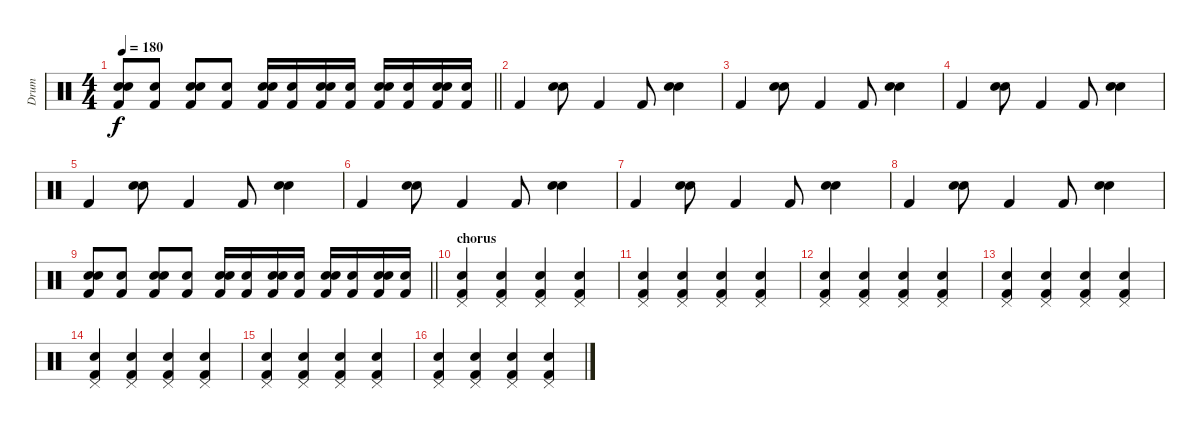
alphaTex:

\track ("Drum" "Drum") {instrument percussion}
\staff {score}
\articulation defaults
\ts (4 4)
\tempo 180
\clef neutral
\barLineRight lightlight
\ks c
("Kick (hit) 2" "Electric Snare (hit)" "Snare (hit) 2").8{dy f} ("Kick (hit) 2" "Electric Snare (hit)").8 ("Kick (hit) 2" "Electric Snare (hit)" "Snare (hit) 2").8 ("Kick (hit) 2" "Electric Snare (hit)").8 ("Kick (hit) 2" "Electric Snare (hit)" "Snare (hit) 2").16 ("Kick (hit) 2" "Electric Snare (hit)").16 ("Kick (hit) 2" "Electric Snare (hit)" "Snare (hit) 2").16 ("Kick (hit) 2" "Electric Snare (hit)").16 ("Kick (hit) 2" "Electric Snare (hit)" "Snare (hit) 2").16 ("Kick (hit) 2" "Electric Snare (hit)").16 ("Kick (hit) 2" "Electric Snare (hit)" "Snare (hit) 2").16 ("Kick (hit) 2" "Electric Snare (hit)").16 |
"Kick (hit) 2".4 ("Snare (hit) 2" "Electric Snare (hit)").8 "Kick (hit) 2".4 "Kick (hit) 2".8 ("Snare (hit) 2" "Electric Snare (hit)").4 |
"Kick (hit) 2".4 ("Snare (hit) 2" "Electric Snare (hit)").8 "Kick (hit) 2".4 "Kick (hit) 2".8 ("Snare (hit) 2" "Electric Snare (hit)").4 |
"Kick (hit) 2".4 ("Snare (hit) 2" "Electric Snare (hit)").8 "Kick (hit) 2".4 "Kick (hit) 2".8 ("Snare (hit) 2" "Electric Snare (hit)").4 |
"Kick (hit) 2".4 ("Snare (hit) 2" "Electric Snare (hit)").8 "Kick (hit) 2".4 "Kick (hit) 2".8 ("Snare (hit) 2" "Electric Snare (hit)").4 |
"Kick (hit) 2".4 ("Snare (hit) 2" "Electric Snare (hit)").8 "Kick (hit) 2".4 "Kick (hit) 2".8 ("Snare (hit) 2" "Electric Snare (hit)").4 |
"Kick (hit) 2".4 ("Snare (hit) 2" "Electric Snare (hit)").8 "Kick (hit) 2".4 "Kick (hit) 2".8 ("Snare (hit) 2" "Electric Snare (hit)").4 |
"Kick (hit) 2".4 ("Snare (hit) 2" "Electric Snare (hit)").8 "Kick (hit) 2".4 "Kick (hit) 2".8 ("Snare (hit) 2" "Electric Snare (hit)").4 |
\barLineRight lightlight
("Kick (hit) 2" "Electric Snare (hit)" "Snare (hit) 2").8 ("Kick (hit) 2" "Electric Snare (hit)").8 ("Kick (hit) 2" "Electric Snare (hit)" "Snare (hit) 2").8 ("Kick (hit) 2" "Electric Snare (hit)").8 ("Kick (hit) 2" "Electric Snare (hit)" "Snare (hit) 2").16 ("Kick (hit) 2" "Electric Snare (hit)").16 ("Kick (hit) 2" "Electric Snare (hit)" "Snare (hit) 2").16 ("Kick (hit) 2" "Electric Snare (hit)").16 ("Kick (hit) 2" "Electric Snare (hit)" "Snare (hit) 2").16 ("Kick (hit) 2" "Electric Snare (hit)").16 ("Kick (hit) 2" "Electric Snare (hit)" "Snare (hit) 2").16 ("Kick (hit) 2" "Electric Snare (hit)").16 |
\section ("" "chorus")
("Electric Snare (hit)" "Kick (hit) 2" "Pedal Hi-Hat (hit)").4 ("Electric Snare (hit)" "Kick (hit) 2" "Pedal Hi-Hat (hit)").4 ("Electric Snare (hit)" "Kick (hit) 2" "Pedal Hi-Hat (hit)").4 ("Electric Snare (hit)" "Kick (hit) 2" "Pedal Hi-Hat (hit)").4 |
("Electric Snare (hit)" "Kick (hit) 2" "Pedal Hi-Hat (hit)").4 ("Electric Snare (hit)" "Kick (hit) 2" "Pedal Hi-Hat (hit)").4 ("Electric Snare (hit)" "Kick (hit) 2" "Pedal Hi-Hat (hit)").4 ("Electric Snare (hit)" "Kick (hit) 2" "Pedal Hi-Hat (hit)").4 |
("Electric Snare (hit)" "Kick (hit) 2" "Pedal Hi-Hat (hit)").4 ("Electric Snare (hit)" "Kick (hit) 2" "Pedal Hi-Hat (hit)").4 ("Electric Snare (hit)" "Kick (hit) 2" "Pedal Hi-Hat (hit)").4 ("Electric Snare (hit)" "Kick (hit) 2" "Pedal Hi-Hat (hit)").4 |
("Electric Snare (hit)" "Kick (hit) 2" "Pedal Hi-Hat (hit)").4 ("Electric Snare (hit)" "Kick (hit) 2" "Pedal Hi-Hat (hit)").4 ("Electric Snare (hit)" "Kick (hit) 2" "Pedal Hi-Hat (hit)").4 ("Electric Snare (hit)" "Kick (hit) 2" "Pedal Hi-Hat (hit)").4 |
("Electric Snare (hit)" "Kick (hit) 2" "Pedal Hi-Hat (hit)").4 ("Electric Snare (hit)" "Kick (hit) 2" "Pedal Hi-Hat (hit)").4 ("Electric Snare (hit)" "Kick (hit) 2" "Pedal Hi-Hat (hit)").4 ("Electric Snare (hit)" "Kick (hit) 2" "Pedal Hi-Hat (hit)").4 |
("Electric Snare (hit)" "Kick (hit) 2" "Pedal Hi-Hat (hit)").4 ("Electric Snare (hit)" "Kick (hit) 2" "Pedal Hi-Hat (hit)").4 ("Electric Snare (hit)" "Kick (hit) 2" "Pedal Hi-Hat (hit)").4 ("Electric Snare (hit)" "Kick (hit) 2" "Pedal Hi-Hat (hit)").4 |
("Electric Snare (hit)" "Kick (hit) 2" "Pedal Hi-Hat (hit)").4 ("Electric Snare (hit)" "Kick (hit) 2" "Pedal Hi-Hat (hit)").4 ("Electric Snare (hit)" "Kick (hit) 2" "Pedal Hi-Hat (hit)").4 ("Electric Snare (hit)" "Kick (hit) 2" "Pedal Hi-Hat (hit)").4
